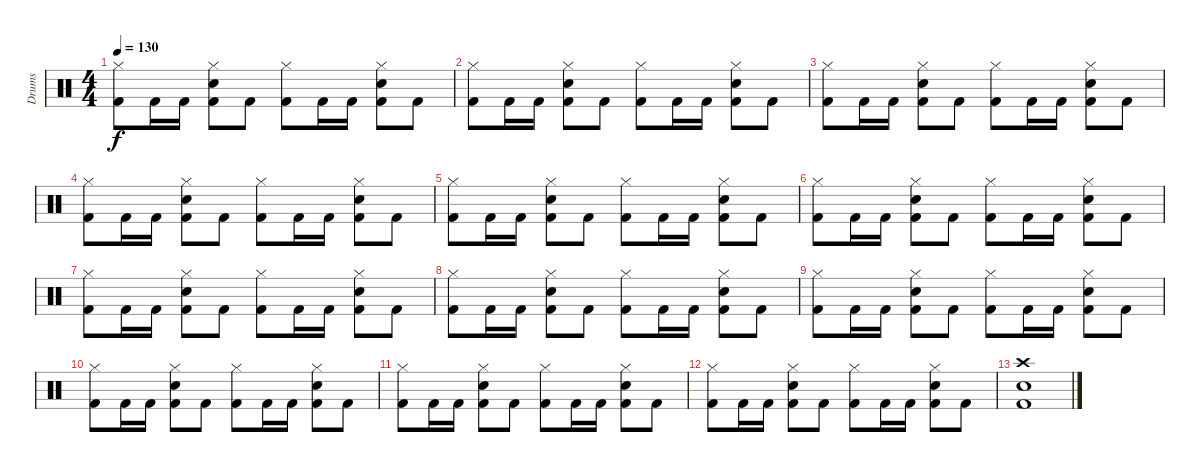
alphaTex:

\track ("Drums" "Drums") {instrument percussion}
\staff {score}
\articulation defaults
\ts (4 4)
\tempo 130
\clef neutral
\ks c
("Hi-Hat (closed)" "Kick (hit) 2").8{dy f} "Kick (hit) 2".16 "Kick (hit) 2".16 ("Electric Snare (hit)" "Hi-Hat (closed)" "Kick (hit) 2").8 "Kick (hit) 2".8 ("Hi-Hat (closed)" "Kick (hit) 2").8 "Kick (hit) 2".16 "Kick (hit) 2".16 ("Electric Snare (hit)" "Hi-Hat (closed)" "Kick (hit) 2").8 "Kick (hit) 2".8 |
("Hi-Hat (closed)" "Kick (hit) 2").8 "Kick (hit) 2".16 "Kick (hit) 2".16 ("Electric Snare (hit)" "Hi-Hat (closed)" "Kick (hit) 2").8 "Kick (hit) 2".8 ("Hi-Hat (closed)" "Kick (hit) 2").8 "Kick (hit) 2".16 "Kick (hit) 2".16 ("Electric Snare (hit)" "Hi-Hat (closed)" "Kick (hit) 2").8 "Kick (hit) 2".8 |
("Hi-Hat (closed)" "Kick (hit) 2").8 "Kick (hit) 2".16 "Kick (hit) 2".16 ("Electric Snare (hit)" "Hi-Hat (closed)" "Kick (hit) 2").8 "Kick (hit) 2".8 ("Hi-Hat (closed)" "Kick (hit) 2").8 "Kick (hit) 2".16 "Kick (hit) 2".16 ("Electric Snare (hit)" "Hi-Hat (closed)" "Kick (hit) 2").8 "Kick (hit) 2".8 |
("Hi-Hat (closed)" "Kick (hit) 2").8 "Kick (hit) 2".16 "Kick (hit) 2".16 ("Electric Snare (hit)" "Hi-Hat (closed)" "Kick (hit) 2").8 "Kick (hit) 2".8 ("Hi-Hat (closed)" "Kick (hit) 2").8 "Kick (hit) 2".16 "Kick (hit) 2".16 ("Electric Snare (hit)" "Hi-Hat (closed)" "Kick (hit) 2").8 "Kick (hit) 2".8 |
("Hi-Hat (closed)" "Kick (hit) 2").8 "Kick (hit) 2".16 "Kick (hit) 2".16 ("Electric Snare (hit)" "Hi-Hat (closed)" "Kick (hit) 2").8 "Kick (hit) 2".8 ("Hi-Hat (closed)" "Kick (hit) 2").8 "Kick (hit) 2".16 "Kick (hit) 2".16 ("Electric Snare (hit)" "Hi-Hat (closed)" "Kick (hit) 2").8 "Kick (hit) 2".8 |
("Hi-Hat (closed)" "Kick (hit) 2").8 "Kick (hit) 2".16 "Kick (hit) 2".16 ("Electric Snare (hit)" "Hi-Hat (closed)" "Kick (hit) 2").8 "Kick (hit) 2".8 ("Hi-Hat (closed)" "Kick (hit) 2").8 "Kick (hit) 2".16 "Kick (hit) 2".16 ("Electric Snare (hit)" "Hi-Hat (closed)" "Kick (hit) 2").8 "Kick (hit) 2".8 |
("Hi-Hat (closed)" "Kick (hit) 2").8 "Kick (hit) 2".16 "Kick (hit) 2".16 ("Electric Snare (hit)" "Hi-Hat (closed)" "Kick (hit) 2").8 "Kick (hit) 2".8 ("Hi-Hat (closed)" "Kick (hit) 2").8 "Kick (hit) 2".16 "Kick (hit) 2".16 ("Electric Snare (hit)" "Hi-Hat (closed)" "Kick (hit) 2").8 "Kick (hit) 2".8 |
("Hi-Hat (closed)" "Kick (hit) 2").8 "Kick (hit) 2".16 "Kick (hit) 2".16 ("Electric Snare (hit)" "Hi-Hat (closed)" "Kick (hit) 2").8 "Kick (hit) 2".8 ("Hi-Hat (closed)" "Kick (hit) 2").8 "Kick (hit) 2".16 "Kick (hit) 2".16 ("Electric Snare (hit)" "Hi-Hat (closed)" "Kick (hit) 2").8 "Kick (hit) 2".8 |
("Hi-Hat (closed)" "Kick (hit) 2").8 "Kick (hit) 2".16 "Kick (hit) 2".16 ("Electric Snare (hit)" "Hi-Hat (closed)" "Kick (hit) 2").8 "Kick (hit) 2".8 ("Hi-Hat (closed)" "Kick (hit) 2").8 "Kick (hit) 2".16 "Kick (hit) 2".16 ("Electric Snare (hit)" "Hi-Hat (closed)" "Kick (hit) 2").8 "Kick (hit) 2".8 |
("Hi-Hat (closed)" "Kick (hit) 2").8 "Kick (hit) 2".16 "Kick (hit) 2".16 ("Electric Snare (hit)" "Hi-Hat (closed)" "Kick (hit) 2").8 "Kick (hit) 2".8 ("Hi-Hat (closed)" "Kick (hit) 2").8 "Kick (hit) 2".16 "Kick (hit) 2".16 ("Electric Snare (hit)" "Hi-Hat (closed)" "Kick (hit) 2").8 "Kick (hit) 2".8 |
("Hi-Hat (closed)" "Kick (hit) 2").8 "Kick (hit) 2".16 "Kick (hit) 2".16 ("Electric Snare (hit)" "Hi-Hat (closed)" "Kick (hit) 2").8 "Kick (hit) 2".8 ("Hi-Hat (closed)" "Kick (hit) 2").8 "Kick (hit) 2".16 "Kick (hit) 2".16 ("Electric Snare (hit)" "Hi-Hat (closed)" "Kick (hit) 2").8 "Kick (hit) 2".8 |
("Hi-Hat (closed)" "Kick (hit) 2").8 "Kick (hit) 2".16 "Kick (hit) 2".16 ("Electric Snare (hit)" "Hi-Hat (closed)" "Kick (hit) 2").8 "Kick (hit) 2".8 ("Hi-Hat (closed)" "Kick (hit) 2").8 "Kick (hit) 2".16 "Kick (hit) 2".16 ("Electric Snare (hit)" "Hi-Hat (closed)" "Kick (hit) 2").8 "Kick (hit) 2".8 |
("Crash high (hit)" "Electric Snare (hit)" "Kick (hit) 2").1
